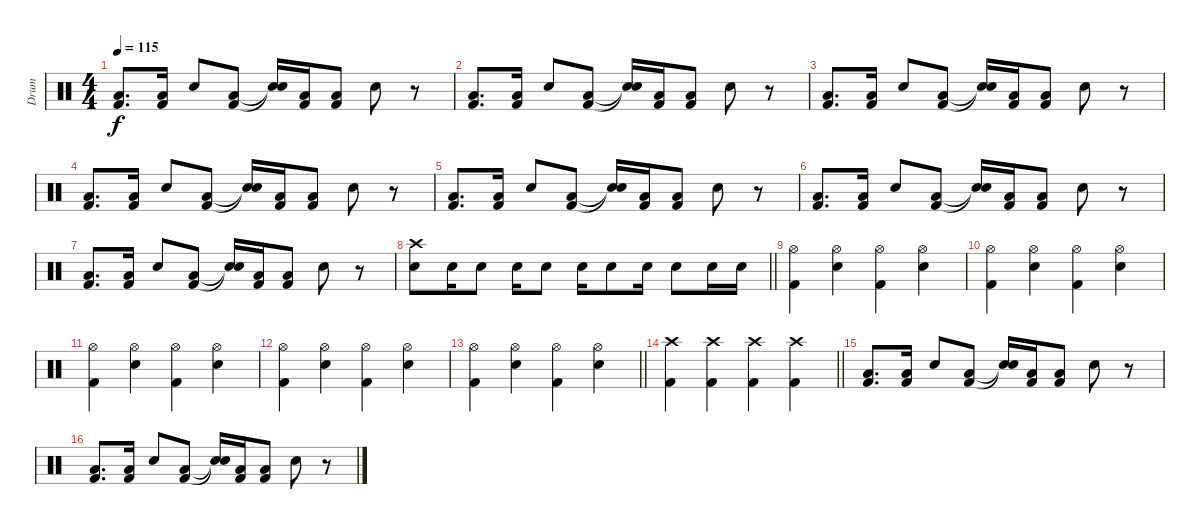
\track ("Drum" "Drum") {instrument percussion}
\staff {score}
\articulation defaults
\ts (4 4)
\tempo 115
\clef neutral
\ks c
("Kick (hit) 2" "Low Floor Tom (hit)").8{d dy f} ("Kick (hit) 2" "Low Floor Tom (hit)").16 "Snare (hit) 2".8 ("Kick (hit) 2" "Low Floor Tom (hit)").8 ("Snare (hit)"{t} "Snare (hit)"{t}).16 ("Kick (hit) 2" "Low Floor Tom (hit)").16 ("Kick (hit) 2" "Low Floor Tom (hit)").8 "Snare (hit) 2".8 r.8 |
("Kick (hit) 2" "Low Floor Tom (hit)").8{d} ("Kick (hit) 2" "Low Floor Tom (hit)").16 "Snare (hit) 2".8 ("Kick (hit) 2" "Low Floor Tom (hit)").8 ("Snare (hit)"{t} "Snare (hit)"{t}).16 ("Kick (hit) 2" "Low Floor Tom (hit)").16 ("Kick (hit) 2" "Low Floor Tom (hit)").8 "Snare (hit) 2".8 r.8 |
("Kick (hit) 2" "Low Floor Tom (hit)").8{d} ("Kick (hit) 2" "Low Floor Tom (hit)").16 "Snare (hit) 2".8 ("Kick (hit) 2" "Low Floor Tom (hit)").8 ("Snare (hit)"{t} "Snare (hit)"{t}).16 ("Kick (hit) 2" "Low Floor Tom (hit)").16 ("Kick (hit) 2" "Low Floor Tom (hit)").8 "Snare (hit) 2".8 r.8 |
("Kick (hit) 2" "Low Floor Tom (hit)").8{d} ("Kick (hit) 2" "Low Floor Tom (hit)").16 "Snare (hit) 2".8 ("Kick (hit) 2" "Low Floor Tom (hit)").8 ("Snare (hit)"{t} "Snare (hit)"{t}).16 ("Kick (hit) 2" "Low Floor Tom (hit)").16 ("Kick (hit) 2" "Low Floor Tom (hit)").8 "Snare (hit) 2".8 r.8 |
("Kick (hit) 2" "Low Floor Tom (hit)").8{d} ("Kick (hit) 2" "Low Floor Tom (hit)").16 "Snare (hit) 2".8 ("Kick (hit) 2" "Low Floor Tom (hit)").8 ("Snare (hit)"{t} "Snare (hit)"{t}).16 ("Kick (hit) 2" "Low Floor Tom (hit)").16 ("Kick (hit) 2" "Low Floor Tom (hit)").8 "Snare (hit) 2".8 r.8 |
("Kick (hit) 2" "Low Floor Tom (hit)").8{d} ("Kick (hit) 2" "Low Floor Tom (hit)").16 "Snare (hit) 2".8 ("Kick (hit) 2" "Low Floor Tom (hit)").8 ("Snare (hit)"{t} "Snare (hit)"{t}).16 ("Kick (hit) 2" "Low Floor Tom (hit)").16 ("Kick (hit) 2" "Low Floor Tom (hit)").8 "Snare (hit) 2".8 r.8 |
("Kick (hit) 2" "Low Floor Tom (hit)").8{d} ("Kick (hit) 2" "Low Floor Tom (hit)").16 "Snare (hit) 2".8 ("Kick (hit) 2" "Low Floor Tom (hit)").8 ("Snare (hit)"{t} "Snare (hit)"{t}).16 ("Kick (hit) 2" "Low Floor Tom (hit)").16 ("Kick (hit) 2" "Low Floor Tom (hit)").8 "Snare (hit) 2".8 r.8 |
\barLineRight lightlight
("Snare (hit) 2" "Crash high (hit)").8 "Snare (hit) 2".16 "Snare (hit) 2".8 "Snare (hit) 2".16 "Snare (hit) 2".8 "Snare (hit) 2".16 "Snare (hit) 2".8 "Snare (hit) 2".16 "Snare (hit) 2".8 "Snare (hit) 2".16 "Snare (hit) 2".16 |
\section ("" "")
("Kick (hit) 2" "Hi-Hat (open)").4 ("Snare (hit) 2" "Hi-Hat (open)").4 ("Kick (hit) 2" "Hi-Hat (open)").4 ("Snare (hit) 2" "Hi-Hat (open)").4 |
("Kick (hit) 2" "Hi-Hat (open)").4 ("Snare (hit) 2" "Hi-Hat (open)").4 ("Kick (hit) 2" "Hi-Hat (open)").4 ("Snare (hit) 2" "Hi-Hat (open)").4 |
("Kick (hit) 2" "Hi-Hat (open)").4 ("Snare (hit) 2" "Hi-Hat (open)").4 ("Kick (hit) 2" "Hi-Hat (open)").4 ("Snare (hit) 2" "Hi-Hat (open)").4 |
("Kick (hit) 2" "Hi-Hat (open)").4 ("Snare (hit) 2" "Hi-Hat (open)").4 ("Kick (hit) 2" "Hi-Hat (open)").4 ("Snare (hit) 2" "Hi-Hat (open)").4 |
\barLineRight lightlight
("Kick (hit) 2" "Hi-Hat (open)").4 ("Snare (hit) 2" "Hi-Hat (open)").4 ("Kick (hit) 2" "Hi-Hat (open)").4 ("Snare (hit) 2" "Hi-Hat (open)").4 |
\barLineRight lightlight
("Kick (hit) 2" "Crash high (hit)").4 ("Kick (hit) 2" "Crash high (hit)").4 ("Kick (hit) 2" "Crash high (hit)").4 ("Kick (hit) 2" "Crash high (hit)").4 |
\section ("" "")
("Kick (hit) 2" "Low Floor Tom (hit)").8{d} ("Kick (hit) 2" "Low Floor Tom (hit)").16 "Snare (hit) 2".8 ("Kick (hit) 2" "Low Floor Tom (hit)").8 ("Snare (hit)"{t} "Snare (hit)"{t}).16 ("Kick (hit) 2" "Low Floor Tom (hit)").16 ("Kick (hit) 2" "Low Floor Tom (hit)").8 "Snare (hit) 2".8 r.8 |
("Kick (hit) 2" "Low Floor Tom (hit)").8{d} ("Kick (hit) 2" "Low Floor Tom (hit)").16 "Snare (hit) 2".8 ("Kick (hit) 2" "Low Floor Tom (hit)").8 ("Snare (hit)"{t} "Snare (hit)"{t}).16 ("Kick (hit) 2" "Low Floor Tom (hit)").16 ("Kick (hit) 2" "Low Floor Tom (hit)").8 "Snare (hit) 2".8 r.8
